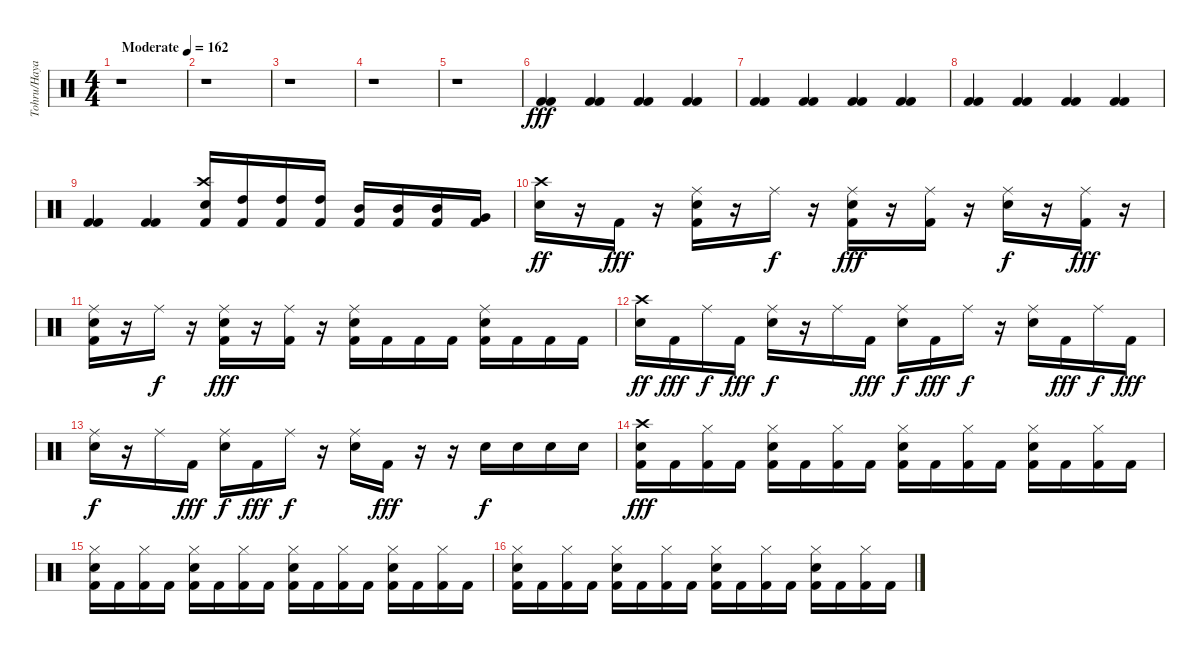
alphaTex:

\track ("Tohru/Hayato" "Tohru/Haya") {instrument percussion}
\staff {score}
\articulation defaults
\ts (4 4)
\tempo (162 "Moderate")
\clef neutral
\ks c
r.1{dy fff} |
r.1 |
r.1 |
r.1 |
r.1 |
("Kick (hit) 2" "Kick (hit) 2").4 ("Kick (hit) 2" "Kick (hit) 2").4 ("Kick (hit) 2" "Kick (hit) 2").4 ("Kick (hit) 2" "Kick (hit) 2").4 |
("Kick (hit) 2" "Kick (hit) 2").4 ("Kick (hit) 2" "Kick (hit) 2").4 ("Kick (hit) 2" "Kick (hit) 2").4 ("Kick (hit) 2" "Kick (hit) 2").4 |
("Kick (hit) 2" "Kick (hit) 2").4 ("Kick (hit) 2" "Kick (hit) 2").4 ("Kick (hit) 2" "Kick (hit) 2").4 ("Kick (hit) 2" "Kick (hit) 2").4 |
("Kick (hit) 2" "Kick (hit) 2").4 ("Kick (hit) 2" "Kick (hit) 2").4 ("Crash high (hit)" "Electric Snare (hit)" "Kick (hit) 2").16 ("High Tom (hit)" "Kick (hit) 2").16 ("High Tom (hit)" "Kick (hit) 2").16 ("High Tom (hit)" "Kick (hit) 2").16 ("Mid Tom (hit)" "Kick (hit) 2").16 ("Mid Tom (hit)" "Kick (hit) 2").16 ("Mid Tom (hit)" "Kick (hit) 2").16 ("Very Low Tom (hit)" "Kick (hit) 2").16 |
("Crash high (hit)" "Electric Snare (hit)").16{dy ff} r.16 "Kick (hit) 2".16{dy fff} r.16 ("Ride (middle)" "Electric Snare (hit)" "Kick (hit) 2").16 r.16 "Ride (middle)".16{dy f} r.16 ("Ride (middle)" "Electric Snare (hit)" "Kick (hit) 2").16{dy fff} r.16 ("Ride (middle)" "Kick (hit) 2").16 r.16 ("Ride (middle)" "Electric Snare (hit)").16{dy f} r.16 ("Ride (middle)" "Kick (hit) 2").16{dy fff} r.16 |
("Ride (middle)" "Electric Snare (hit)" "Kick (hit) 2").16 r.16 "Ride (middle)".16{dy f} r.16 ("Ride (middle)" "Electric Snare (hit)" "Kick (hit) 2").16{dy fff} r.16 ("Ride (middle)" "Kick (hit) 2").16 r.16 ("Ride (middle)" "Electric Snare (hit)" "Kick (hit) 2").16 "Kick (hit) 2".16 "Kick (hit) 2".16 "Kick (hit) 2".16 ("Ride (middle)" "Electric Snare (hit)" "Kick (hit) 2").16 "Kick (hit) 2".16 "Kick (hit) 2".16 "Kick (hit) 2".16 |
("Crash high (hit)" "Electric Snare (hit)").16{dy ff} "Kick (hit) 2".16{dy fff} "Ride (middle)".16{dy f} "Kick (hit) 2".16{dy fff} ("Ride (middle)" "Electric Snare (hit)").16{dy f} r.16 "Ride (middle)".16 "Kick (hit) 2".16{dy fff} ("Ride (middle)" "Electric Snare (hit)").16{dy f} "Kick (hit) 2".16{dy fff} "Ride (middle)".16{dy f} r.16 ("Ride (middle)" "Electric Snare (hit)").16 "Kick (hit) 2".16{dy fff} "Ride (middle)".16{dy f} "Kick (hit) 2".16{dy fff} |
("Ride (middle)" "Electric Snare (hit)").16{dy f} r.16 "Ride (middle)".16 "Kick (hit) 2".16{dy fff} ("Ride (middle)" "Electric Snare (hit)").16{dy f} "Kick (hit) 2".16{dy fff} "Ride (middle)".16{dy f} r.16 ("Ride (middle)" "Electric Snare (hit)").16 "Kick (hit) 2".16{dy fff} r.16 r.16 "Electric Snare (hit)".16{dy f} "Electric Snare (hit)".16 "Electric Snare (hit)".16 "Electric Snare (hit)".16 |
("Crash high (hit)" "Electric Snare (hit)" "Kick (hit) 2").16{dy fff} "Kick (hit) 2".16 ("Hi-Hat (closed)" "Kick (hit) 2").16 "Kick (hit) 2".16 ("Hi-Hat (closed)" "Electric Snare (hit)" "Kick (hit) 2").16 "Kick (hit) 2".16 ("Hi-Hat (closed)" "Kick (hit) 2").16 "Kick (hit) 2".16 ("Hi-Hat (closed)" "Electric Snare (hit)" "Kick (hit) 2").16 "Kick (hit) 2".16 ("Hi-Hat (closed)" "Kick (hit) 2").16 "Kick (hit) 2".16 ("Hi-Hat (closed)" "Electric Snare (hit)" "Kick (hit) 2").16 "Kick (hit) 2".16 ("Hi-Hat (closed)" "Kick (hit) 2").16 "Kick (hit) 2".16 |
("Hi-Hat (closed)" "Electric Snare (hit)" "Kick (hit) 2").16 "Kick (hit) 2".16 ("Hi-Hat (closed)" "Kick (hit) 2").16 "Kick (hit) 2".16 ("Hi-Hat (closed)" "Electric Snare (hit)" "Kick (hit) 2").16 "Kick (hit) 2".16 ("Hi-Hat (closed)" "Kick (hit) 2").16 "Kick (hit) 2".16 ("Hi-Hat (closed)" "Electric Snare (hit)" "Kick (hit) 2").16 "Kick (hit) 2".16 ("Hi-Hat (closed)" "Kick (hit) 2").16 "Kick (hit) 2".16 ("Hi-Hat (closed)" "Electric Snare (hit)" "Kick (hit) 2").16 "Kick (hit) 2".16 ("Hi-Hat (closed)" "Kick (hit) 2").16 "Kick (hit) 2".16 |
("Hi-Hat (closed)" "Electric Snare (hit)" "Kick (hit) 2").16 "Kick (hit) 2".16 ("Hi-Hat (closed)" "Kick (hit) 2").16 "Kick (hit) 2".16 ("Hi-Hat (closed)" "Electric Snare (hit)" "Kick (hit) 2").16 "Kick (hit) 2".16 ("Hi-Hat (closed)" "Kick (hit) 2").16 "Kick (hit) 2".16 ("Hi-Hat (closed)" "Electric Snare (hit)" "Kick (hit) 2").16 "Kick (hit) 2".16 ("Hi-Hat (closed)" "Kick (hit) 2").16 "Kick (hit) 2".16 ("Hi-Hat (closed)" "Electric Snare (hit)" "Kick (hit) 2").16 "Kick (hit) 2".16 ("Hi-Hat (closed)" "Kick (hit) 2").16 "Kick (hit) 2".16
